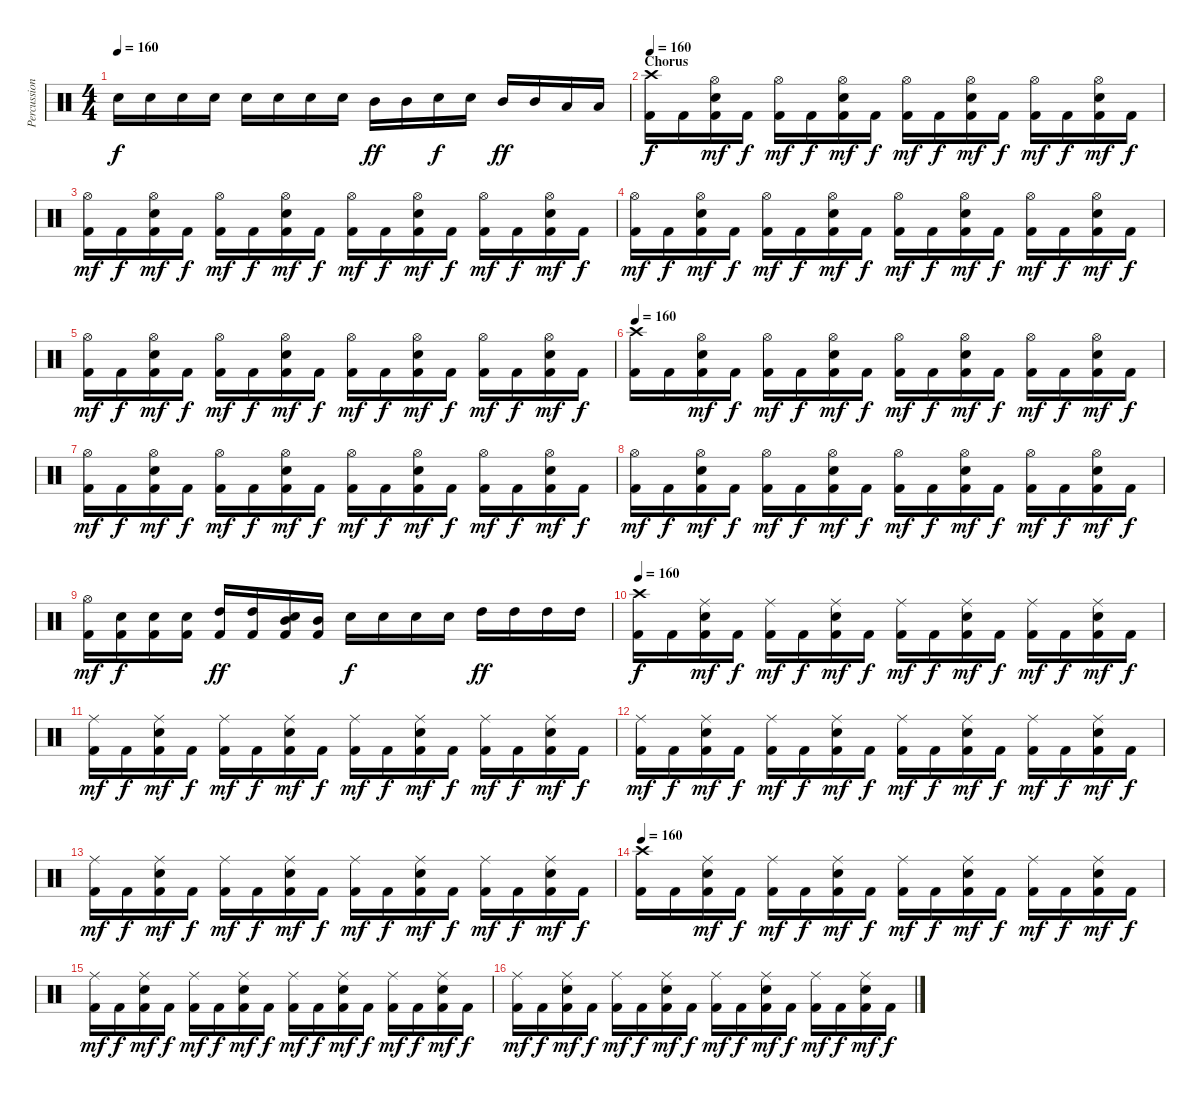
\track ("Percussion" "Percussion") {instrument percussion}
\staff {score}
\articulation defaults
\ts (4 4)
\tempo 160
\clef neutral
\ks c "Electric Snare (hit)".16{dy f} "Electric Snare (hit)".16 "Electric Snare (hit)".16 "Electric Snare (hit)".16 "Electric Snare (hit)".16 "Electric Snare (hit)".16 "Electric Snare (hit)".16 "Electric Snare (hit)".16 "Mid Tom (hit)".16{dy ff} "Mid Tom (hit)".16 "Electric Snare (hit)".16{dy f} "Electric Snare (hit)".16 "Mid Tom (hit)".16{dy ff} "Mid Tom (hit)".16 "Low Tom (hit)".16 "Low Tom (hit)".16
|
\section ("" "Chorus")
\tempo 160
("Crash high (hit)" "Kick (hit) 2").16{dy f} "Kick (hit) 2".16 ("Hi-Hat (open)" "Electric Snare (hit)" "Kick (hit) 2").16{dy mf} "Kick (hit) 2".16{dy f} ("Hi-Hat (open)" "Kick (hit) 2").16{dy mf} "Kick (hit) 2".16{dy f} ("Hi-Hat (open)" "Electric Snare (hit)" "Kick (hit) 2").16{dy mf} "Kick (hit) 2".16{dy f} ("Hi-Hat (open)" "Kick (hit) 2").16{dy mf} "Kick (hit) 2".16{dy f} ("Hi-Hat (open)" "Electric Snare (hit)" "Kick (hit) 2").16{dy mf} "Kick (hit) 2".16{dy f} ("Hi-Hat (open)" "Kick (hit) 2").16{dy mf} "Kick (hit) 2".16{dy f} ("Hi-Hat (open)" "Electric Snare (hit)" "Kick (hit) 2").16{dy mf} "Kick (hit) 2".16{dy f} |
("Hi-Hat (open)" "Kick (hit) 2").16{dy mf} "Kick (hit) 2".16{dy f} ("Hi-Hat (open)" "Electric Snare (hit)" "Kick (hit) 2").16{dy mf} "Kick (hit) 2".16{dy f} ("Hi-Hat (open)" "Kick (hit) 2").16{dy mf} "Kick (hit) 2".16{dy f} ("Hi-Hat (open)" "Electric Snare (hit)" "Kick (hit) 2").16{dy mf} "Kick (hit) 2".16{dy f} ("Hi-Hat (open)" "Kick (hit) 2").16{dy mf} "Kick (hit) 2".16{dy f} ("Hi-Hat (open)" "Electric Snare (hit)" "Kick (hit) 2").16{dy mf} "Kick (hit) 2".16{dy f} ("Hi-Hat (open)" "Kick (hit) 2").16{dy mf} "Kick (hit) 2".16{dy f} ("Hi-Hat (open)" "Electric Snare (hit)" "Kick (hit) 2").16{dy mf} "Kick (hit) 2".16{dy f} |
("Hi-Hat (open)" "Kick (hit) 2").16{dy mf} "Kick (hit) 2".16{dy f} ("Hi-Hat (open)" "Electric Snare (hit)" "Kick (hit) 2").16{dy mf} "Kick (hit) 2".16{dy f} ("Hi-Hat (open)" "Kick (hit) 2").16{dy mf} "Kick (hit) 2".16{dy f} ("Hi-Hat (open)" "Electric Snare (hit)" "Kick (hit) 2").16{dy mf} "Kick (hit) 2".16{dy f} ("Hi-Hat (open)" "Kick (hit) 2").16{dy mf} "Kick (hit) 2".16{dy f} ("Hi-Hat (open)" "Electric Snare (hit)" "Kick (hit) 2").16{dy mf} "Kick (hit) 2".16{dy f} ("Hi-Hat (open)" "Kick (hit) 2").16{dy mf} "Kick (hit) 2".16{dy f} ("Hi-Hat (open)" "Electric Snare (hit)" "Kick (hit) 2").16{dy mf} "Kick (hit) 2".16{dy f} |
("Hi-Hat (open)" "Kick (hit) 2").16{dy mf} "Kick (hit) 2".16{dy f} ("Hi-Hat (open)" "Electric Snare (hit)" "Kick (hit) 2").16{dy mf} "Kick (hit) 2".16{dy f} ("Hi-Hat (open)" "Kick (hit) 2").16{dy mf} "Kick (hit) 2".16{dy f} ("Hi-Hat (open)" "Electric Snare (hit)" "Kick (hit) 2").16{dy mf} "Kick (hit) 2".16{dy f} ("Hi-Hat (open)" "Kick (hit) 2").16{dy mf} "Kick (hit) 2".16{dy f} ("Hi-Hat (open)" "Electric Snare (hit)" "Kick (hit) 2").16{dy mf} "Kick (hit) 2".16{dy f} ("Hi-Hat (open)" "Kick (hit) 2").16{dy mf} "Kick (hit) 2".16{dy f} ("Hi-Hat (open)" "Electric Snare (hit)" "Kick (hit) 2").16{dy mf} "Kick (hit) 2".16{dy f} |
\tempo 160
("Crash high (hit)" "Kick (hit) 2").16 "Kick (hit) 2".16 ("Hi-Hat (open)" "Electric Snare (hit)" "Kick (hit) 2").16{dy mf} "Kick (hit) 2".16{dy f} ("Hi-Hat (open)" "Kick (hit) 2").16{dy mf} "Kick (hit) 2".16{dy f} ("Hi-Hat (open)" "Electric Snare (hit)" "Kick (hit) 2").16{dy mf} "Kick (hit) 2".16{dy f} ("Hi-Hat (open)" "Kick (hit) 2").16{dy mf} "Kick (hit) 2".16{dy f} ("Hi-Hat (open)" "Electric Snare (hit)" "Kick (hit) 2").16{dy mf} "Kick (hit) 2".16{dy f} ("Hi-Hat (open)" "Kick (hit) 2").16{dy mf} "Kick (hit) 2".16{dy f} ("Hi-Hat (open)" "Electric Snare (hit)" "Kick (hit) 2").16{dy mf} "Kick (hit) 2".16{dy f} |
("Hi-Hat (open)" "Kick (hit) 2").16{dy mf} "Kick (hit) 2".16{dy f} ("Hi-Hat (open)" "Electric Snare (hit)" "Kick (hit) 2").16{dy mf} "Kick (hit) 2".16{dy f} ("Hi-Hat (open)" "Kick (hit) 2").16{dy mf} "Kick (hit) 2".16{dy f} ("Hi-Hat (open)" "Electric Snare (hit)" "Kick (hit) 2").16{dy mf} "Kick (hit) 2".16{dy f} ("Hi-Hat (open)" "Kick (hit) 2").16{dy mf} "Kick (hit) 2".16{dy f} ("Hi-Hat (open)" "Electric Snare (hit)" "Kick (hit) 2").16{dy mf} "Kick (hit) 2".16{dy f} ("Hi-Hat (open)" "Kick (hit) 2").16{dy mf} "Kick (hit) 2".16{dy f} ("Hi-Hat (open)" "Electric Snare (hit)" "Kick (hit) 2").16{dy mf} "Kick (hit) 2".16{dy f} |
("Hi-Hat (open)" "Kick (hit) 2").16{dy mf} "Kick (hit) 2".16{dy f} ("Hi-Hat (open)" "Electric Snare (hit)" "Kick (hit) 2").16{dy mf} "Kick (hit) 2".16{dy f} ("Hi-Hat (open)" "Kick (hit) 2").16{dy mf} "Kick (hit) 2".16{dy f} ("Hi-Hat (open)" "Electric Snare (hit)" "Kick (hit) 2").16{dy mf} "Kick (hit) 2".16{dy f} ("Hi-Hat (open)" "Kick (hit) 2").16{dy mf} "Kick (hit) 2".16{dy f} ("Hi-Hat (open)" "Electric Snare (hit)" "Kick (hit) 2").16{dy mf} "Kick (hit) 2".16{dy f} ("Hi-Hat (open)" "Kick (hit) 2").16{dy mf} "Kick (hit) 2".16{dy f} ("Hi-Hat (open)" "Electric Snare (hit)" "Kick (hit) 2").16{dy mf} "Kick (hit) 2".16{dy f} |
("Hi-Hat (open)" "Kick (hit) 2").16{dy mf} ("Electric Snare (hit)" "Kick (hit) 2").16{dy f} ("Electric Snare (hit)" "Kick (hit) 2").16 ("Electric Snare (hit)" "Kick (hit) 2").16 ("High Tom (hit)" "Kick (hit) 2").16{dy ff} ("High Tom (hit)" "Kick (hit) 2").16 ("Mid Tom (hit)" "Electric Snare (hit)" "Kick (hit) 2").16 ("Mid Tom (hit)" "Kick (hit) 2").16 "Electric Snare (hit)".16{dy f} "Electric Snare (hit)".16 "Electric Snare (hit)".16 "Electric Snare (hit)".16 "High Tom (hit)".16{dy ff} "High Tom (hit)".16 "High Tom (hit)".16 "High Tom (hit)".16 |
\tempo 160
("Crash high (hit)" "Kick (hit) 2").16{dy f} "Kick (hit) 2".16 ("Ride (middle)" "Electric Snare (hit)" "Kick (hit) 2").16{dy mf} "Kick (hit) 2".16{dy f} ("Ride (middle)" "Kick (hit) 2").16{dy mf} "Kick (hit) 2".16{dy f} ("Ride (middle)" "Electric Snare (hit)" "Kick (hit) 2").16{dy mf} "Kick (hit) 2".16{dy f} ("Ride (middle)" "Kick (hit) 2").16{dy mf} "Kick (hit) 2".16{dy f} ("Ride (middle)" "Electric Snare (hit)" "Kick (hit) 2").16{dy mf} "Kick (hit) 2".16{dy f} ("Ride (middle)" "Kick (hit) 2").16{dy mf} "Kick (hit) 2".16{dy f} ("Ride (middle)" "Electric Snare (hit)" "Kick (hit) 2").16{dy mf} "Kick (hit) 2".16{dy f} |
("Ride (middle)" "Kick (hit) 2").16{dy mf} "Kick (hit) 2".16{dy f} ("Ride (middle)" "Electric Snare (hit)" "Kick (hit) 2").16{dy mf} "Kick (hit) 2".16{dy f} ("Ride (middle)" "Kick (hit) 2").16{dy mf} "Kick (hit) 2".16{dy f} ("Ride (middle)" "Electric Snare (hit)" "Kick (hit) 2").16{dy mf} "Kick (hit) 2".16{dy f} ("Ride (middle)" "Kick (hit) 2").16{dy mf} "Kick (hit) 2".16{dy f} ("Ride (middle)" "Electric Snare (hit)" "Kick (hit) 2").16{dy mf} "Kick (hit) 2".16{dy f} ("Ride (middle)" "Kick (hit) 2").16{dy mf} "Kick (hit) 2".16{dy f} ("Ride (middle)" "Electric Snare (hit)" "Kick (hit) 2").16{dy mf} "Kick (hit) 2".16{dy f} |
("Ride (middle)" "Kick (hit) 2").16{dy mf} "Kick (hit) 2".16{dy f} ("Ride (middle)" "Electric Snare (hit)" "Kick (hit) 2").16{dy mf} "Kick (hit) 2".16{dy f} ("Ride (middle)" "Kick (hit) 2").16{dy mf} "Kick (hit) 2".16{dy f} ("Ride (middle)" "Electric Snare (hit)" "Kick (hit) 2").16{dy mf} "Kick (hit) 2".16{dy f} ("Ride (middle)" "Kick (hit) 2").16{dy mf} "Kick (hit) 2".16{dy f} ("Ride (middle)" "Electric Snare (hit)" "Kick (hit) 2").16{dy mf} "Kick (hit) 2".16{dy f} ("Ride (middle)" "Kick (hit) 2").16{dy mf} "Kick (hit) 2".16{dy f} ("Ride (middle)" "Electric Snare (hit)" "Kick (hit) 2").16{dy mf} "Kick (hit) 2".16{dy f} |
("Ride (middle)" "Kick (hit) 2").16{dy mf} "Kick (hit) 2".16{dy f} ("Ride (middle)" "Electric Snare (hit)" "Kick (hit) 2").16{dy mf} "Kick (hit) 2".16{dy f} ("Ride (middle)" "Kick (hit) 2").16{dy mf} "Kick (hit) 2".16{dy f} ("Ride (middle)" "Electric Snare (hit)" "Kick (hit) 2").16{dy mf} "Kick (hit) 2".16{dy f} ("Ride (middle)" "Kick (hit) 2").16{dy mf} "Kick (hit) 2".16{dy f} ("Ride (middle)" "Electric Snare (hit)" "Kick (hit) 2").16{dy mf} "Kick (hit) 2".16{dy f} ("Ride (middle)" "Kick (hit) 2").16{dy mf} "Kick (hit) 2".16{dy f} ("Ride (middle)" "Electric Snare (hit)" "Kick (hit) 2").16{dy mf} "Kick (hit) 2".16{dy f} |
\tempo 160
("Crash high (hit)" "Kick (hit) 2").16 "Kick (hit) 2".16 ("Ride (middle)" "Electric Snare (hit)" "Kick (hit) 2").16{dy mf} "Kick (hit) 2".16{dy f} ("Ride (middle)" "Kick (hit) 2").16{dy mf} "Kick (hit) 2".16{dy f} ("Ride (middle)" "Electric Snare (hit)" "Kick (hit) 2").16{dy mf} "Kick (hit) 2".16{dy f} ("Ride (middle)" "Kick (hit) 2").16{dy mf} "Kick (hit) 2".16{dy f} ("Ride (middle)" "Electric Snare (hit)" "Kick (hit) 2").16{dy mf} "Kick (hit) 2".16{dy f} ("Ride (middle)" "Kick (hit) 2").16{dy mf} "Kick (hit) 2".16{dy f} ("Ride (middle)" "Electric Snare (hit)" "Kick (hit) 2").16{dy mf} "Kick (hit) 2".16{dy f} |
("Ride (middle)" "Kick (hit) 2").16{dy mf} "Kick (hit) 2".16{dy f} ("Ride (middle)" "Electric Snare (hit)" "Kick (hit) 2").16{dy mf} "Kick (hit) 2".16{dy f} ("Ride (middle)" "Kick (hit) 2").16{dy mf} "Kick (hit) 2".16{dy f} ("Ride (middle)" "Electric Snare (hit)" "Kick (hit) 2").16{dy mf} "Kick (hit) 2".16{dy f} ("Ride (middle)" "Kick (hit) 2").16{dy mf} "Kick (hit) 2".16{dy f} ("Ride (middle)" "Electric Snare (hit)" "Kick (hit) 2").16{dy mf} "Kick (hit) 2".16{dy f} ("Ride (middle)" "Kick (hit) 2").16{dy mf} "Kick (hit) 2".16{dy f} ("Ride (middle)" "Electric Snare (hit)" "Kick (hit) 2").16{dy mf} "Kick (hit) 2".16{dy f} |
("Ride (middle)" "Kick (hit) 2").16{dy mf} "Kick (hit) 2".16{dy f} ("Ride (middle)" "Electric Snare (hit)" "Kick (hit) 2").16{dy mf} "Kick (hit) 2".16{dy f} ("Ride (middle)" "Kick (hit) 2").16{dy mf} "Kick (hit) 2".16{dy f} ("Ride (middle)" "Electric Snare (hit)" "Kick (hit) 2").16{dy mf} "Kick (hit) 2".16{dy f} ("Ride (middle)" "Kick (hit) 2").16{dy mf} "Kick (hit) 2".16{dy f} ("Ride (middle)" "Electric Snare (hit)" "Kick (hit) 2").16{dy mf} "Kick (hit) 2".16{dy f} ("Ride (middle)" "Kick (hit) 2").16{dy mf} "Kick (hit) 2".16{dy f} ("Ride (middle)" "Electric Snare (hit)" "Kick (hit) 2").16{dy mf} "Kick (hit) 2".16{dy f}
